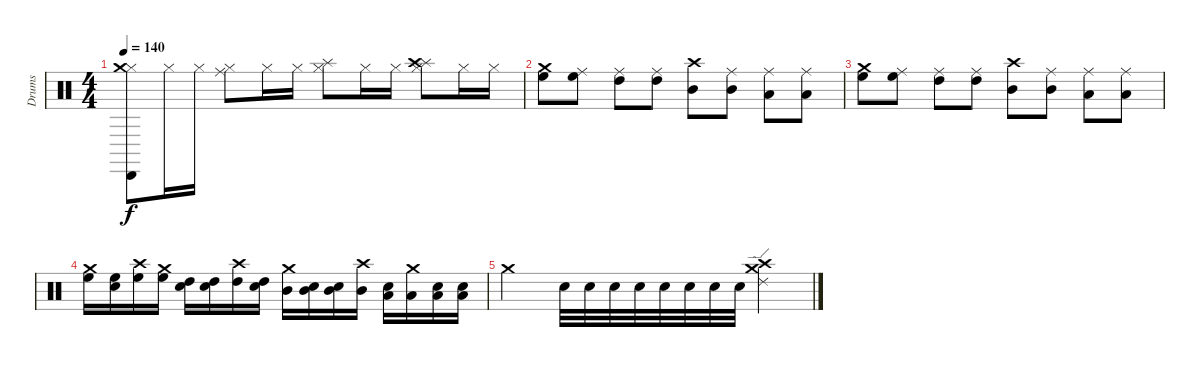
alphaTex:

\track ("Drums" "Drums") {instrument percussion}
\staff {score}
\articulation defaults
\ts (4 4)
\tempo 140
\clef neutral
\ks c
("Hi-Hat (closed)" "Cabasa (hit)" "Crash medium (hit)").8{dy f} "Hi-Hat (closed)".16 "Hi-Hat (closed)".16 ("Hi-Hat (closed)" "Ride (middle)").8 "Hi-Hat (closed)".16 "Hi-Hat (closed)".16 ("Hi-Hat (closed)" "Splash (hit)").8 "Hi-Hat (closed)".16 "Hi-Hat (closed)".16 ("Hi-Hat (closed)" "Splash (hit)" "Crash high (hit)").8 "Hi-Hat (closed)".16 "Hi-Hat (closed)".16 |
("High Floor Tom (hit)" "Crash medium (hit)").8 ("High Floor Tom (hit)" "Ride (middle)").8 ("High Tom (hit)" "Ride (middle)").8 ("High Tom (hit)" "Ride (middle)").8 ("Mid Tom (hit)" "Crash high (hit)").8 ("Mid Tom (hit)" "Ride (middle)").8 ("Low Tom (hit)" "Ride (middle)").8 ("Low Tom (hit)" "Ride (middle)").8 |
("High Floor Tom (hit)" "Crash medium (hit)").8 ("High Floor Tom (hit)" "Ride (middle)").8 ("High Tom (hit)" "Ride (middle)").8 ("High Tom (hit)" "Ride (middle)").8 ("Mid Tom (hit)" "Crash high (hit)").8 ("Mid Tom (hit)" "Ride (middle)").8 ("Low Tom (hit)" "Ride (middle)").8 ("Low Tom (hit)" "Ride (middle)").8 |
("High Floor Tom (hit)" "Crash medium (hit)").16 ("High Floor Tom (hit)" "Snare (hit) 2").16 ("High Floor Tom (hit)" "Crash high (hit)").16 ("High Floor Tom (hit)" "Crash medium (hit)").16 ("High Tom (hit)" "Snare (hit) 2").16 ("High Tom (hit)" "Electric Snare (hit)").16 ("High Tom (hit)" "Crash high (hit)").16 ("High Tom (hit)" "Snare (hit) 2").16 ("Mid Tom (hit)" "Crash medium (hit)").16 ("Mid Tom (hit)" "Electric Snare (hit)").16 ("Mid Tom (hit)" "Electric Snare (hit)").16 ("Mid Tom (hit)" "Crash high (hit)").16 ("Low Tom (hit)" "Electric Snare (hit)").16 ("Low Tom (hit)" "Crash medium (hit)").16 ("Low Tom (hit)" "Snare (hit) 2").16 ("Low Tom (hit)" "Electric Snare (hit)").16 |
"Crash medium (hit)".2 "Snare (hit) 2".32 "Electric Snare (hit)".32 "Snare (hit) 2".32 "Electric Snare (hit)".32 "Snare (hit) 2".32 "Electric Snare (hit)".32 "Snare (hit) 2".32 "Electric Snare (hit)".32 ("Crash medium (hit)" "Ride (edge) 2" "Crash high (hit)").4
